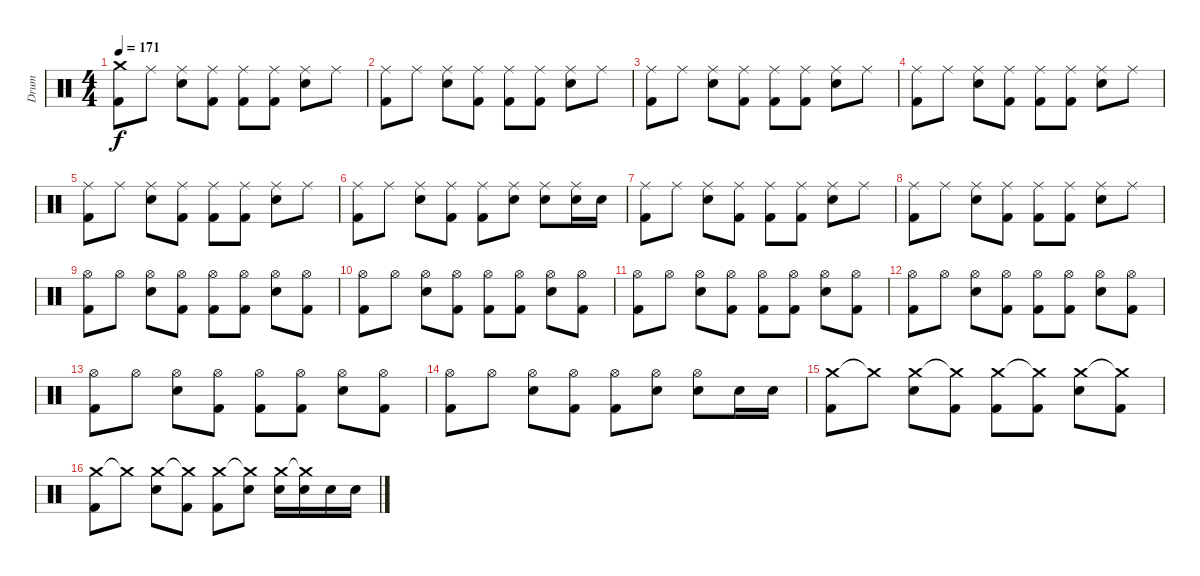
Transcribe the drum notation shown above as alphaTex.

\track ("Drum" "Drum") {instrument percussion}
\staff {score}
\articulation defaults
\ts (4 4)
\tempo 171
\clef neutral
\ks c
("Crash medium (hit)" "Kick (hit) 2").8{dy f} "Ride (middle)".8 ("Ride (middle)" "Electric Snare (hit)").8 ("Ride (middle)" "Kick (hit) 2").8 ("Ride (middle)" "Kick (hit) 2").8 ("Ride (middle)" "Kick (hit) 2").8 ("Ride (middle)" "Electric Snare (hit)").8 "Ride (middle)".8 |
("Ride (middle)" "Kick (hit) 2").8 "Ride (middle)".8 ("Ride (middle)" "Electric Snare (hit)").8 ("Ride (middle)" "Kick (hit) 2").8 ("Ride (middle)" "Kick (hit) 2").8 ("Ride (middle)" "Kick (hit) 2").8 ("Ride (middle)" "Electric Snare (hit)").8 "Ride (middle)".8 |
("Ride (middle)" "Kick (hit) 2").8 "Ride (middle)".8 ("Ride (middle)" "Electric Snare (hit)").8 ("Ride (middle)" "Kick (hit) 2").8 ("Ride (middle)" "Kick (hit) 2").8 ("Ride (middle)" "Kick (hit) 2").8 ("Ride (middle)" "Electric Snare (hit)").8 "Ride (middle)".8 |
("Ride (middle)" "Kick (hit) 2").8 "Ride (middle)".8 ("Ride (middle)" "Electric Snare (hit)").8 ("Ride (middle)" "Kick (hit) 2").8 ("Ride (middle)" "Kick (hit) 2").8 ("Ride (middle)" "Kick (hit) 2").8 ("Ride (middle)" "Electric Snare (hit)").8 "Ride (middle)".8 |
("Ride (middle)" "Kick (hit) 2").8 "Ride (middle)".8 ("Ride (middle)" "Electric Snare (hit)").8 ("Ride (middle)" "Kick (hit) 2").8 ("Ride (middle)" "Kick (hit) 2").8 ("Ride (middle)" "Kick (hit) 2").8 ("Ride (middle)" "Electric Snare (hit)").8 "Ride (middle)".8 |
("Ride (middle)" "Kick (hit) 2").8 "Ride (middle)".8 ("Ride (middle)" "Electric Snare (hit)").8 ("Ride (middle)" "Kick (hit) 2").8 ("Ride (middle)" "Kick (hit) 2").8 ("Ride (middle)" "Electric Snare (hit)").8 ("Ride (middle)" "Electric Snare (hit)").8 ("Ride (middle)" "Electric Snare (hit)").16 "Electric Snare (hit)".16 |
("Ride (middle)" "Kick (hit) 2").8 "Ride (middle)".8 ("Ride (middle)" "Electric Snare (hit)").8 ("Ride (middle)" "Kick (hit) 2").8 ("Ride (middle)" "Kick (hit) 2").8 ("Ride (middle)" "Kick (hit) 2").8 ("Ride (middle)" "Electric Snare (hit)").8 "Ride (middle)".8 |
("Ride (middle)" "Kick (hit) 2").8 "Ride (middle)".8 ("Ride (middle)" "Electric Snare (hit)").8 ("Ride (middle)" "Kick (hit) 2").8 ("Ride (middle)" "Kick (hit) 2").8 ("Ride (middle)" "Kick (hit) 2").8 ("Ride (middle)" "Electric Snare (hit)").8 "Ride (middle)".8 |
("Hi-Hat (open)" "Kick (hit) 2").8 "Hi-Hat (open)".8 ("Hi-Hat (open)" "Electric Snare (hit)").8 ("Hi-Hat (open)" "Kick (hit) 2").8 ("Hi-Hat (open)" "Kick (hit) 2").8 ("Hi-Hat (open)" "Kick (hit) 2").8 ("Hi-Hat (open)" "Electric Snare (hit)").8 ("Hi-Hat (open)" "Kick (hit) 2").8 |
("Hi-Hat (open)" "Kick (hit) 2").8 "Hi-Hat (open)".8 ("Hi-Hat (open)" "Electric Snare (hit)").8 ("Hi-Hat (open)" "Kick (hit) 2").8 ("Hi-Hat (open)" "Kick (hit) 2").8 ("Hi-Hat (open)" "Kick (hit) 2").8 ("Hi-Hat (open)" "Electric Snare (hit)").8 ("Hi-Hat (open)" "Kick (hit) 2").8 |
("Hi-Hat (open)" "Kick (hit) 2").8 "Hi-Hat (open)".8 ("Hi-Hat (open)" "Electric Snare (hit)").8 ("Hi-Hat (open)" "Kick (hit) 2").8 ("Hi-Hat (open)" "Kick (hit) 2").8 ("Hi-Hat (open)" "Kick (hit) 2").8 ("Hi-Hat (open)" "Electric Snare (hit)").8 ("Hi-Hat (open)" "Kick (hit) 2").8 |
("Hi-Hat (open)" "Kick (hit) 2").8 "Hi-Hat (open)".8 ("Hi-Hat (open)" "Electric Snare (hit)").8 ("Hi-Hat (open)" "Kick (hit) 2").8 ("Hi-Hat (open)" "Kick (hit) 2").8 ("Hi-Hat (open)" "Kick (hit) 2").8 ("Hi-Hat (open)" "Electric Snare (hit)").8 ("Hi-Hat (open)" "Kick (hit) 2").8 |
("Hi-Hat (open)" "Kick (hit) 2").8 "Hi-Hat (open)".8 ("Hi-Hat (open)" "Electric Snare (hit)").8 ("Hi-Hat (open)" "Kick (hit) 2").8 ("Hi-Hat (open)" "Kick (hit) 2").8 ("Hi-Hat (open)" "Kick (hit) 2").8 ("Hi-Hat (open)" "Electric Snare (hit)").8 ("Hi-Hat (open)" "Kick (hit) 2").8 |
("Hi-Hat (open)" "Kick (hit) 2").8 "Hi-Hat (open)".8 ("Hi-Hat (open)" "Electric Snare (hit)").8 ("Hi-Hat (open)" "Kick (hit) 2").8 ("Hi-Hat (open)" "Kick (hit) 2").8 ("Hi-Hat (open)" "Electric Snare (hit)").8 ("Hi-Hat (open)" "Electric Snare (hit)").8 "Electric Snare (hit)".16 "Electric Snare (hit)".16 |
("Crash medium (hit)" "Kick (hit) 2").8 "Crash medium (hit)"{t}.8 ("Crash medium (hit)" "Electric Snare (hit)").8 ("Crash medium (hit)"{t} "Kick (hit) 2").8 ("Crash medium (hit)" "Kick (hit) 2").8 ("Crash medium (hit)"{t} "Kick (hit) 2").8 ("Crash medium (hit)" "Electric Snare (hit)").8 ("Crash medium (hit)"{t} "Kick (hit) 2").8 |
("Crash medium (hit)" "Kick (hit) 2").8 "Crash medium (hit)"{t}.8 ("Crash medium (hit)" "Electric Snare (hit)").8 ("Crash medium (hit)"{t} "Kick (hit) 2").8 ("Crash medium (hit)" "Kick (hit) 2").8 ("Crash medium (hit)"{t} "Electric Snare (hit)").8 ("Crash medium (hit)" "Electric Snare (hit)").16 ("Crash medium (hit)"{t} "Electric Snare (hit)").16 "Electric Snare (hit)".16 "Electric Snare (hit)".16
